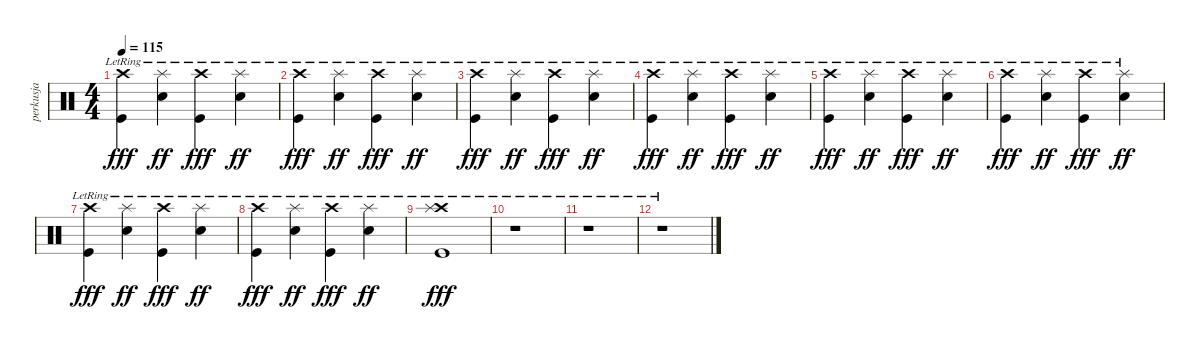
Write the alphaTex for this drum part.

\track ("perkusja" "perkusja") {instrument percussion}
\staff {score}
\articulation defaults
\ts (4 4)
\tempo 115
\clef neutral
\ks c
("Crash high (hit)"{lr} "Kick (hit)").4{dy fff} ("Splash (hit)"{lr} "Electric Snare (hit)").4{dy ff} ("Crash high (hit)"{lr} "Kick (hit)").4{dy fff} ("Splash (hit)"{lr} "Electric Snare (hit)").4{dy ff} |
("Crash high (hit)"{lr} "Kick (hit)").4{dy fff} ("Splash (hit)"{lr} "Electric Snare (hit)").4{dy ff} ("Crash high (hit)"{lr} "Kick (hit)").4{dy fff} ("Splash (hit)"{lr} "Electric Snare (hit)").4{dy ff} |
("Crash high (hit)"{lr} "Kick (hit)").4{dy fff} ("Splash (hit)"{lr} "Electric Snare (hit)").4{dy ff} ("Crash high (hit)"{lr} "Kick (hit)").4{dy fff} ("Splash (hit)"{lr} "Electric Snare (hit)").4{dy ff} |
("Crash high (hit)"{lr} "Kick (hit)").4{dy fff} ("Splash (hit)"{lr} "Electric Snare (hit)").4{dy ff} ("Crash high (hit)"{lr} "Kick (hit)").4{dy fff} ("Splash (hit)"{lr} "Electric Snare (hit)").4{dy ff} |
("Crash high (hit)"{lr} "Kick (hit)").4{dy fff} ("Splash (hit)"{lr} "Electric Snare (hit)").4{dy ff} ("Crash high (hit)"{lr} "Kick (hit)").4{dy fff} ("Splash (hit)"{lr} "Electric Snare (hit)").4{dy ff} |
("Crash high (hit)"{lr} "Kick (hit)").4{dy fff} ("Splash (hit)"{lr} "Electric Snare (hit)").4{dy ff} ("Crash high (hit)"{lr} "Kick (hit)").4{dy fff} ("Splash (hit)"{lr} "Electric Snare (hit)").4{dy ff} |
("Crash high (hit)"{lr} "Kick (hit)").4{dy fff} ("Splash (hit)"{lr} "Electric Snare (hit)").4{dy ff} ("Crash high (hit)"{lr} "Kick (hit)").4{dy fff} ("Splash (hit)"{lr} "Electric Snare (hit)").4{dy ff} |
("Crash high (hit)"{lr} "Kick (hit)").4{dy fff} ("Splash (hit)"{lr} "Electric Snare (hit)").4{dy ff} ("Crash high (hit)"{lr} "Kick (hit)").4{dy fff} ("Splash (hit)"{lr} "Electric Snare (hit)").4{dy ff} |
("Crash high (hit)"{lr} "Splash (hit)"{lr} "Kick (hit)").1{dy fff} |
r.1 |
r.1 |
r.1
